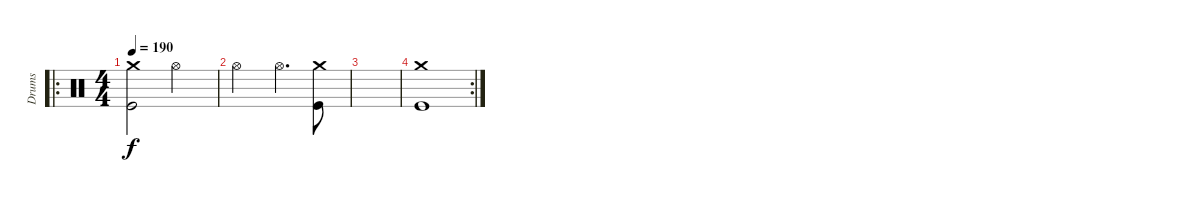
\track ("Drums" "Drums") {instrument percussion}
\staff {score}
\articulation defaults
\ro
\ts (4 4)
\tempo 190
\clef neutral
\ks c
("Crash medium (hit)" "Kick (hit)").2{dy f} "Hi-Hat (open)".2 |
"Hi-Hat (open)".2 "Hi-Hat (open)".4{d} ("Crash medium (hit)" "Kick (hit)").8 |
|
\rc 2
("Crash medium (hit)" "Kick (hit)").1
